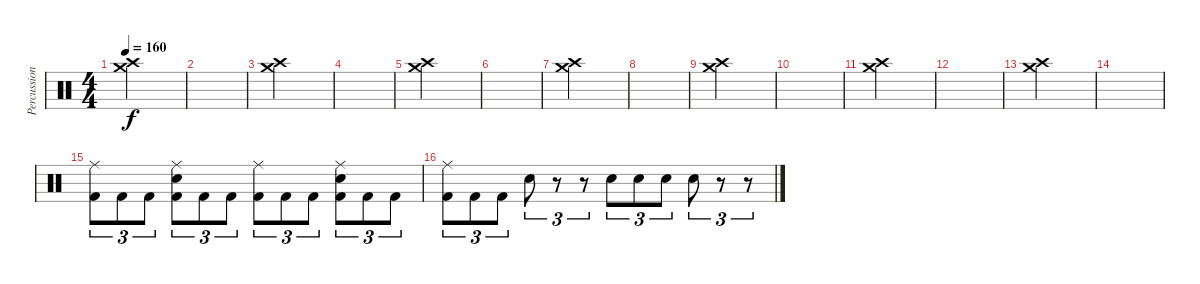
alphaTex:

\track ("Percussion" "Percussion") {instrument percussion}
\staff {score}
\articulation defaults
\ts (4 4)
\tempo 160
\clef neutral
\ks c
("Crash high (hit)" "Crash medium (hit)").4{dy f} |
|
("Crash high (hit)" "Crash medium (hit)").4 |
|
("Crash high (hit)" "Crash medium (hit)").4 |
|
("Crash high (hit)" "Crash medium (hit)").4 |
|
("Crash high (hit)" "Crash medium (hit)").4 |
|
("Crash high (hit)" "Crash medium (hit)").4 |
|
("Crash high (hit)" "Crash medium (hit)").4 |
|
("Ride (middle)" "Kick (hit) 2").8{tu (3 2)} "Kick (hit) 2".8{tu (3 2)} "Kick (hit) 2".8{tu (3 2)} ("Ride (middle)" "Electric Snare (hit)" "Kick (hit) 2").8{tu (3 2)} "Kick (hit) 2".8{tu (3 2)} "Kick (hit) 2".8{tu (3 2)} ("Ride (middle)" "Kick (hit) 2").8{tu (3 2)} "Kick (hit) 2".8{tu (3 2)} "Kick (hit) 2".8{tu (3 2)} ("Ride (middle)" "Electric Snare (hit)" "Kick (hit) 2").8{tu (3 2)} "Kick (hit) 2".8{tu (3 2)} "Kick (hit) 2".8{tu (3 2)} |
("Ride (middle)" "Kick (hit) 2").8{tu (3 2)} "Kick (hit) 2".8{tu (3 2)} "Kick (hit) 2".8{tu (3 2)} "Electric Snare (hit)".8{tu (3 2)} r.8{tu (3 2)} r.8{tu (3 2)} "Electric Snare (hit)".8{tu (3 2)} "Electric Snare (hit)".8{tu (3 2)} "Electric Snare (hit)".8{tu (3 2)} "Electric Snare (hit)".8{tu (3 2)} r.8{tu (3 2)} r.8{tu (3 2)}
